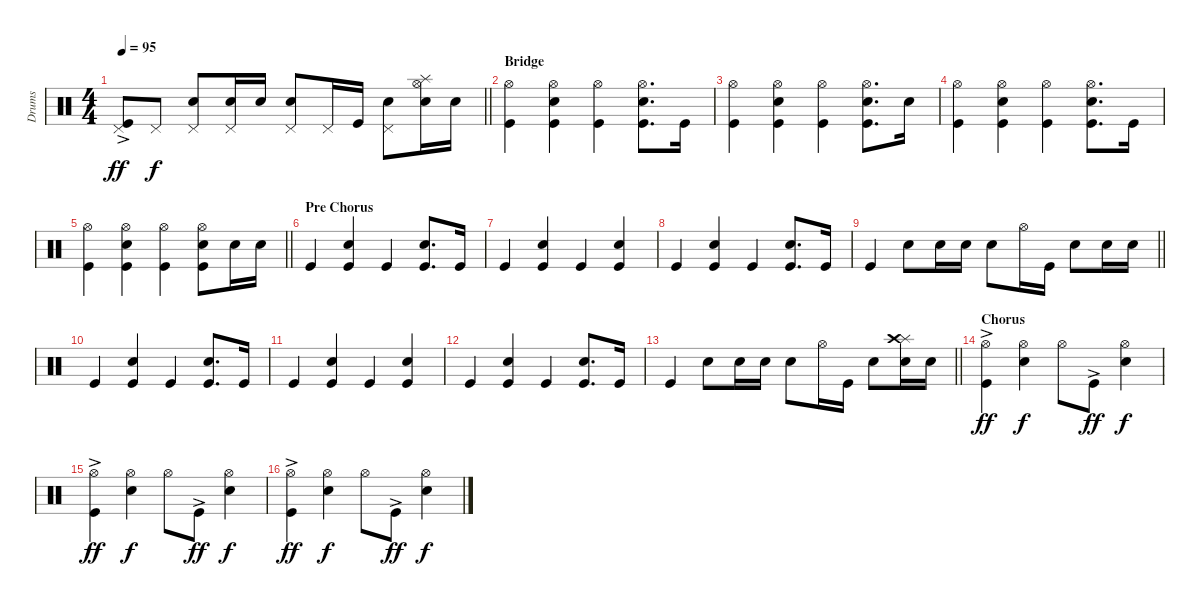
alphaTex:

\track ("Drums" "Drums") {instrument percussion}
\staff {score}
\articulation defaults
\ts (4 4)
\tempo 95
\clef neutral
\barLineRight lightlight
\ks c
("Pedal Hi-Hat (hit)" "Kick (hit)"{ac}).8{dy ff} "Pedal Hi-Hat (hit)".8{dy f} ("Pedal Hi-Hat (hit)" "Snare (hit) 2").8 ("Snare (hit) 2" "Pedal Hi-Hat (hit)").16 "Snare (hit) 2".16 ("Snare (hit) 2" "Pedal Hi-Hat (hit)").8 "Pedal Hi-Hat (hit)".16 "Kick (hit)".16 ("Pedal Hi-Hat (hit)" "Snare (hit) 2").8 ("Snare (hit) 2" "Hi-Hat (open)" "Splash (hit)").16 "Snare (hit) 2".16 |
\section ("" "Bridge")
("Hi-Hat (open)" "Kick (hit)").4 ("Kick (hit)" "Hi-Hat (open)" "Snare (hit) 2").4 ("Hi-Hat (open)" "Kick (hit)").4 ("Kick (hit)" "Hi-Hat (open)" "Snare (hit) 2").8{d} "Kick (hit)".16 |
("Hi-Hat (open)" "Kick (hit)").4 ("Kick (hit)" "Hi-Hat (open)" "Snare (hit) 2").4 ("Kick (hit)" "Hi-Hat (open)").4 ("Kick (hit)" "Hi-Hat (open)" "Snare (hit) 2").8{d} "Snare (hit) 2".16 |
("Hi-Hat (open)" "Kick (hit)").4 ("Kick (hit)" "Hi-Hat (open)" "Snare (hit) 2").4 ("Hi-Hat (open)" "Kick (hit)").4 ("Kick (hit)" "Hi-Hat (open)" "Snare (hit) 2").8{d} "Kick (hit)".16 |
\barLineRight lightlight
("Hi-Hat (open)" "Kick (hit)").4 ("Kick (hit)" "Hi-Hat (open)" "Snare (hit) 2").4 ("Kick (hit)" "Hi-Hat (open)").4 ("Snare (hit) 2" "Kick (hit)" "Hi-Hat (open)").8 "Snare (hit) 2".16 "Snare (hit) 2".16 |
\section ("" "Pre Chorus")
"Kick (hit)".4 ("Kick (hit)" "Snare (hit) 2").4 "Kick (hit)".4 ("Kick (hit)" "Snare (hit) 2").8{d} "Kick (hit)".16 |
"Kick (hit)".4 ("Kick (hit)" "Snare (hit) 2").4 "Kick (hit)".4 ("Kick (hit)" "Snare (hit) 2").4 |
"Kick (hit)".4 ("Kick (hit)" "Snare (hit) 2").4 "Kick (hit)".4 ("Kick (hit)" "Snare (hit) 2").8{d} "Kick (hit)".16 |
\barLineRight lightlight "Kick (hit)".4 "Snare (hit) 2".8 "Snare (hit) 2".16 "Snare (hit) 2".16 "Snare (hit) 2".8 "Hi-Hat (open)".16 "Kick (hit)".16 "Snare (hit) 2".8 "Snare (hit) 2".16 "Snare (hit) 2".16
|
"Kick (hit)".4 ("Kick (hit)" "Snare (hit) 2").4 "Kick (hit)".4 ("Kick (hit)" "Snare (hit) 2").8{d} "Kick (hit)".16 |
"Kick (hit)".4 ("Kick (hit)" "Snare (hit) 2").4 "Kick (hit)".4 ("Kick (hit)" "Snare (hit) 2").4 |
"Kick (hit)".4 ("Kick (hit)" "Snare (hit) 2").4 "Kick (hit)".4 ("Kick (hit)" "Snare (hit) 2").8{d} "Kick (hit)".16 |
\barLineRight lightlight "Kick (hit)".4 "Snare (hit) 2".8 "Snare (hit) 2".16 "Snare (hit) 2".16 "Snare (hit) 2".8 "Hi-Hat (open)".16 "Kick (hit)".16 "Snare (hit) 2".8
("Snare (hit) 2" "Splash (hit)" "Crash high (hit)").16 "Snare (hit) 2".16 |
\section ("" "Chorus")
("Kick (hit)"{ac} "Hi-Hat (open)").4{dy ff} ("Snare (hit) 2" "Hi-Hat (open)").4{dy f} "Hi-Hat (open)".8 "Kick (hit)"{ac}.8{dy ff} ("Hi-Hat (open)" "Snare (hit) 2").4{dy f} |
("Kick (hit)"{ac} "Hi-Hat (open)").4{dy ff} ("Snare (hit) 2" "Hi-Hat (open)").4{dy f} "Hi-Hat (open)".8 "Kick (hit)"{ac}.8{dy ff} ("Hi-Hat (open)" "Snare (hit) 2").4{dy f} |
("Kick (hit)"{ac} "Hi-Hat (open)").4{dy ff} ("Snare (hit) 2" "Hi-Hat (open)").4{dy f} "Hi-Hat (open)".8 "Kick (hit)"{ac}.8{dy ff} ("Hi-Hat (open)" "Snare (hit) 2").4{dy f}
